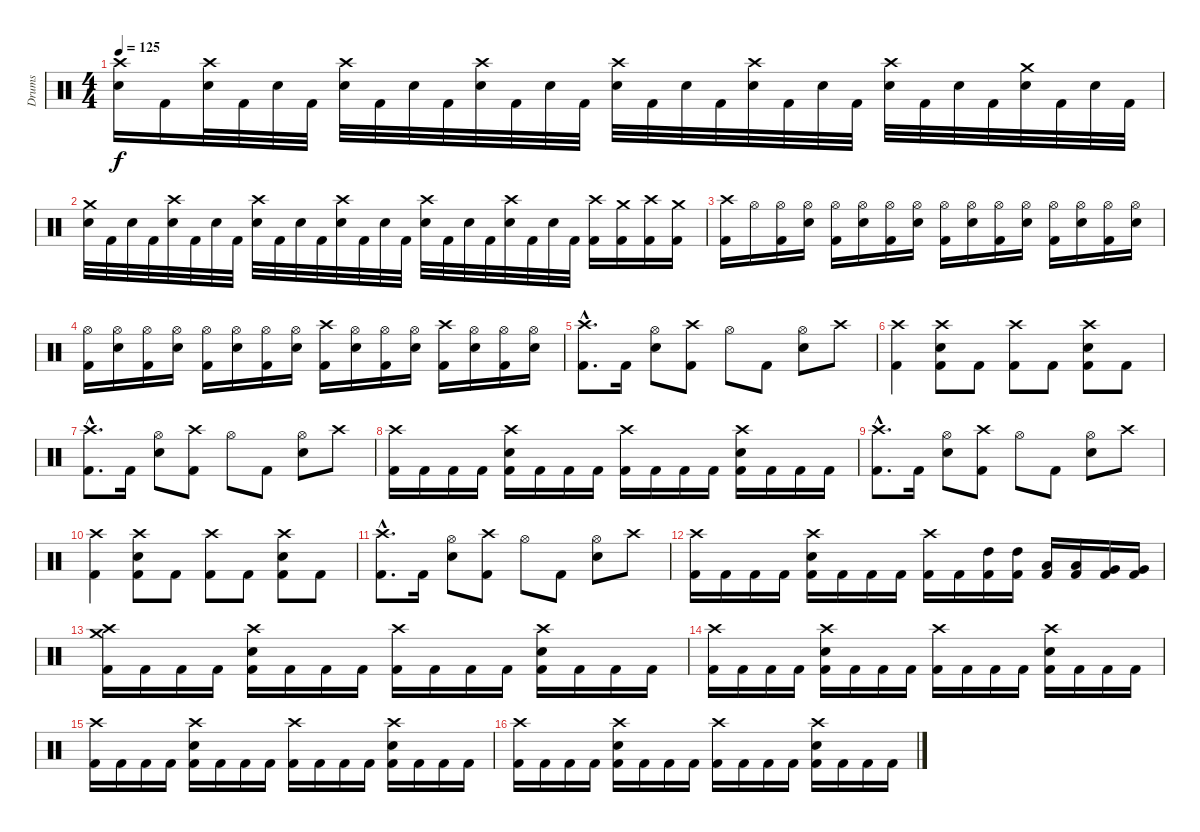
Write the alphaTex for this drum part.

\track ("Drums" "Drums") {instrument percussion}
\staff {score}
\articulation defaults
\ts (4 4)
\tempo 125
\clef neutral
\ks c
("Crash high (hit)" "Electric Snare (hit)").16{dy f} "Kick (hit) 2".16 ("Crash high (hit)" "Electric Snare (hit)").32 "Kick (hit) 2".32 "Electric Snare (hit)".32 "Kick (hit) 2".32 ("Crash high (hit)" "Electric Snare (hit)").32 "Kick (hit) 2".32 "Electric Snare (hit)".32 "Kick (hit) 2".32 ("Crash high (hit)" "Electric Snare (hit)").32 "Kick (hit) 2".32 "Electric Snare (hit)".32 "Kick (hit) 2".32 ("Crash high (hit)" "Electric Snare (hit)").32 "Kick (hit) 2".32 "Electric Snare (hit)".32 "Kick (hit) 2".32 ("Crash high (hit)" "Electric Snare (hit)").32 "Kick (hit) 2".32 "Electric Snare (hit)".32 "Kick (hit) 2".32 ("Crash high (hit)" "Electric Snare (hit)").32 "Kick (hit) 2".32 "Electric Snare (hit)".32 "Kick (hit) 2".32 ("Crash medium (hit)" "Electric Snare (hit)").32 "Kick (hit) 2".32 "Electric Snare (hit)".32 "Kick (hit) 2".32 |
("Crash medium (hit)" "Electric Snare (hit)").32 "Kick (hit) 2".32 "Electric Snare (hit)".32 "Kick (hit) 2".32 ("Crash high (hit)" "Electric Snare (hit)").32 "Kick (hit) 2".32 "Electric Snare (hit)".32 "Kick (hit) 2".32 ("Crash high (hit)" "Electric Snare (hit)").32 "Kick (hit) 2".32 "Electric Snare (hit)".32 "Kick (hit) 2".32 ("Crash high (hit)" "Electric Snare (hit)").32 "Kick (hit) 2".32 "Electric Snare (hit)".32 "Kick (hit) 2".32 ("Crash high (hit)" "Electric Snare (hit)").32 "Kick (hit) 2".32 "Electric Snare (hit)".32 "Kick (hit) 2".32 ("Crash high (hit)" "Electric Snare (hit)").32 "Kick (hit) 2".32 "Electric Snare (hit)".32 "Kick (hit) 2".32 ("Crash high (hit)" "Kick (hit) 2").16 ("Crash medium (hit)" "Kick (hit) 2").16 ("Crash high (hit)" "Kick (hit) 2").16 ("Crash medium (hit)" "Kick (hit) 2").16 |
("Crash high (hit)" "Kick (hit) 2").16 "Hi-Hat (open)".16 ("Hi-Hat (open)" "Kick (hit) 2").16 ("Hi-Hat (open)" "Electric Snare (hit)").16 ("Hi-Hat (open)" "Kick (hit) 2").16 ("Hi-Hat (open)" "Electric Snare (hit)").16 ("Hi-Hat (open)" "Kick (hit) 2").16 ("Hi-Hat (open)" "Electric Snare (hit)").16 ("Hi-Hat (open)" "Kick (hit) 2").16 ("Hi-Hat (open)" "Electric Snare (hit)").16 ("Hi-Hat (open)" "Kick (hit) 2").16 ("Hi-Hat (open)" "Electric Snare (hit)").16 ("Hi-Hat (open)" "Kick (hit) 2").16 ("Hi-Hat (open)" "Electric Snare (hit)").16 ("Hi-Hat (open)" "Kick (hit) 2").16 ("Hi-Hat (open)" "Electric Snare (hit)").16 |
("Hi-Hat (open)" "Kick (hit) 2").16 ("Hi-Hat (open)" "Electric Snare (hit)").16 ("Hi-Hat (open)" "Kick (hit) 2").16 ("Hi-Hat (open)" "Electric Snare (hit)").16 ("Hi-Hat (open)" "Kick (hit) 2").16 ("Hi-Hat (open)" "Electric Snare (hit)").16 ("Hi-Hat (open)" "Kick (hit) 2").16 ("Hi-Hat (open)" "Electric Snare (hit)").16 ("Crash high (hit)" "Kick (hit) 2").16 ("Hi-Hat (open)" "Electric Snare (hit)").16 ("Hi-Hat (open)" "Kick (hit) 2").16 ("Hi-Hat (open)" "Electric Snare (hit)").16 ("Crash high (hit)" "Kick (hit) 2").16 ("Hi-Hat (open)" "Electric Snare (hit)").16 ("Hi-Hat (open)" "Kick (hit) 2").16 ("Hi-Hat (open)" "Electric Snare (hit)").16 |
\section ("" "")
("Crash high (hit)"{hac} "Kick (hit) 2"{hac}).8{d} "Kick (hit) 2".16 ("Hi-Hat (open)" "Electric Snare (hit)").8 ("Crash high (hit)" "Kick (hit) 2").8 "Hi-Hat (open)".8 "Kick (hit) 2".8 ("Hi-Hat (open)" "Electric Snare (hit)").8 "Crash high (hit)".8 |
("Crash high (hit)" "Kick (hit) 2").4 ("Crash high (hit)" "Electric Snare (hit)" "Kick (hit) 2").8 "Kick (hit) 2".8 ("Crash high (hit)" "Kick (hit) 2").8 "Kick (hit) 2".8 ("Crash high (hit)" "Electric Snare (hit)" "Kick (hit) 2").8 "Kick (hit) 2".8 |
("Crash high (hit)"{hac} "Kick (hit) 2"{hac}).8{d} "Kick (hit) 2".16 ("Hi-Hat (open)" "Electric Snare (hit)").8 ("Crash high (hit)" "Kick (hit) 2").8 "Hi-Hat (open)".8 "Kick (hit) 2".8 ("Hi-Hat (open)" "Electric Snare (hit)").8 "Crash high (hit)".8 |
("Crash high (hit)" "Kick (hit) 2").16 "Kick (hit) 2".16 "Kick (hit) 2".16 "Kick (hit) 2".16 ("Crash high (hit)" "Electric Snare (hit)" "Kick (hit) 2").16 "Kick (hit) 2".16 "Kick (hit) 2".16 "Kick (hit) 2".16 ("Crash high (hit)" "Kick (hit) 2").16 "Kick (hit) 2".16 "Kick (hit) 2".16 "Kick (hit) 2".16 ("Crash high (hit)" "Electric Snare (hit)" "Kick (hit) 2").16 "Kick (hit) 2".16 "Kick (hit) 2".16 "Kick (hit) 2".16 |
("Crash high (hit)"{hac} "Kick (hit) 2"{hac}).8{d} "Kick (hit) 2".16 ("Hi-Hat (open)" "Electric Snare (hit)").8 ("Crash high (hit)" "Kick (hit) 2").8 "Hi-Hat (open)".8 "Kick (hit) 2".8 ("Hi-Hat (open)" "Electric Snare (hit)").8 "Crash high (hit)".8 |
("Crash high (hit)" "Kick (hit) 2").4 ("Crash high (hit)" "Electric Snare (hit)" "Kick (hit) 2").8 "Kick (hit) 2".8 ("Crash high (hit)" "Kick (hit) 2").8 "Kick (hit) 2".8 ("Crash high (hit)" "Electric Snare (hit)" "Kick (hit) 2").8 "Kick (hit) 2".8 |
("Crash high (hit)"{hac} "Kick (hit) 2"{hac}).8{d} "Kick (hit) 2".16 ("Hi-Hat (open)" "Electric Snare (hit)").8 ("Crash high (hit)" "Kick (hit) 2").8 "Hi-Hat (open)".8 "Kick (hit) 2".8 ("Hi-Hat (open)" "Electric Snare (hit)").8 "Crash high (hit)".8 |
("Crash high (hit)" "Kick (hit) 2").16 "Kick (hit) 2".16 "Kick (hit) 2".16 "Kick (hit) 2".16 ("Crash high (hit)" "Electric Snare (hit)" "Kick (hit) 2").16 "Kick (hit) 2".16 "Kick (hit) 2".16 "Kick (hit) 2".16 ("Crash high (hit)" "Kick (hit) 2").16 "Kick (hit) 2".16 ("High Tom (hit)" "Kick (hit) 2").16 ("High Tom (hit)" "Kick (hit) 2").16 ("Low Tom (hit)" "Kick (hit) 2").16 ("Low Tom (hit)" "Kick (hit) 2").16 ("Very Low Tom (hit)" "Kick (hit) 2").16 ("Very Low Tom (hit)" "Kick (hit) 2").16 |
("Crash high (hit)" "Crash medium (hit)" "Kick (hit) 2").16 "Kick (hit) 2".16 "Kick (hit) 2".16 "Kick (hit) 2".16 ("Crash high (hit)" "Electric Snare (hit)" "Kick (hit) 2").16 "Kick (hit) 2".16 "Kick (hit) 2".16 "Kick (hit) 2".16 ("Crash high (hit)" "Kick (hit) 2").16 "Kick (hit) 2".16 "Kick (hit) 2".16 "Kick (hit) 2".16 ("Crash high (hit)" "Electric Snare (hit)" "Kick (hit) 2").16 "Kick (hit) 2".16 "Kick (hit) 2".16 "Kick (hit) 2".16 |
("Crash high (hit)" "Kick (hit) 2").16 "Kick (hit) 2".16 "Kick (hit) 2".16 "Kick (hit) 2".16 ("Crash high (hit)" "Electric Snare (hit)" "Kick (hit) 2").16 "Kick (hit) 2".16 "Kick (hit) 2".16 "Kick (hit) 2".16 ("Crash high (hit)" "Kick (hit) 2").16 "Kick (hit) 2".16 "Kick (hit) 2".16 "Kick (hit) 2".16 ("Crash high (hit)" "Electric Snare (hit)" "Kick (hit) 2").16 "Kick (hit) 2".16 "Kick (hit) 2".16 "Kick (hit) 2".16 |
("Crash high (hit)" "Kick (hit) 2").16 "Kick (hit) 2".16 "Kick (hit) 2".16 "Kick (hit) 2".16 ("Crash high (hit)" "Electric Snare (hit)" "Kick (hit) 2").16 "Kick (hit) 2".16 "Kick (hit) 2".16 "Kick (hit) 2".16 ("Crash high (hit)" "Kick (hit) 2").16 "Kick (hit) 2".16 "Kick (hit) 2".16 "Kick (hit) 2".16 ("Crash high (hit)" "Electric Snare (hit)" "Kick (hit) 2").16 "Kick (hit) 2".16 "Kick (hit) 2".16 "Kick (hit) 2".16 |
("Crash high (hit)" "Kick (hit) 2").16 "Kick (hit) 2".16 "Kick (hit) 2".16 "Kick (hit) 2".16 ("Crash high (hit)" "Electric Snare (hit)" "Kick (hit) 2").16 "Kick (hit) 2".16 "Kick (hit) 2".16 "Kick (hit) 2".16 ("Crash high (hit)" "Kick (hit) 2").16 "Kick (hit) 2".16 "Kick (hit) 2".16 "Kick (hit) 2".16 ("Crash high (hit)" "Electric Snare (hit)" "Kick (hit) 2").16 "Kick (hit) 2".16 "Kick (hit) 2".16 "Kick (hit) 2".16
